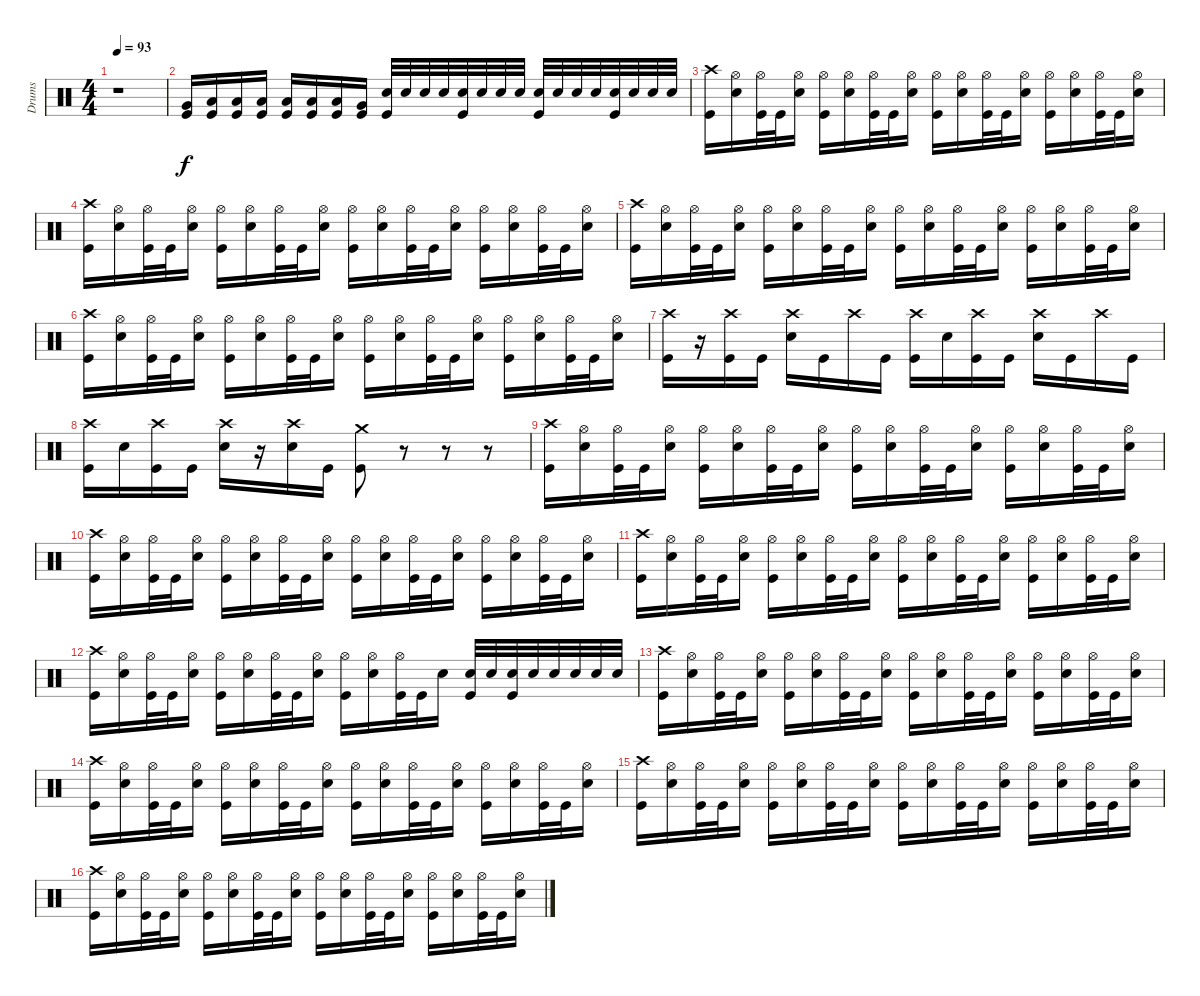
\track ("Drums" "Drums") {instrument percussion}
\staff {score}
\articulation defaults
\ts (4 4)
\tempo 93
\clef neutral
\ks c
r.1{dy f} |
("Very Low Tom (hit)" "Kick (hit)").16 ("Low Floor Tom (hit)" "Kick (hit)").16 ("Low Floor Tom (hit)" "Kick (hit)").16 ("Low Floor Tom (hit)" "Kick (hit)").16 ("Low Floor Tom (hit)" "Kick (hit)").16 ("Low Floor Tom (hit)" "Kick (hit)").16 ("Low Floor Tom (hit)" "Kick (hit)").16 ("Very Low Tom (hit)" "Kick (hit)").16 ("Electric Snare (hit)" "Kick (hit)").32 "Electric Snare (hit)".32 "Electric Snare (hit)".32 "Electric Snare (hit)".32 ("Electric Snare (hit)" "Kick (hit)").32 "Electric Snare (hit)".32 "Electric Snare (hit)".32 "Electric Snare (hit)".32 ("Electric Snare (hit)" "Kick (hit)").32 "Electric Snare (hit)".32 "Electric Snare (hit)".32 "Electric Snare (hit)".32 ("Electric Snare (hit)" "Kick (hit)").32 "Electric Snare (hit)".32 "Electric Snare (hit)".32 "Electric Snare (hit)".32 |
("Crash high (hit)" "Kick (hit)").16 ("Hi-Hat (open)" "Electric Snare (hit)").16 ("Hi-Hat (open)" "Kick (hit)").32 "Kick (hit)".32 ("Hi-Hat (open)" "Electric Snare (hit)").16 ("Hi-Hat (open)" "Kick (hit)").16 ("Hi-Hat (open)" "Electric Snare (hit)").16 ("Hi-Hat (open)" "Kick (hit)").32 "Kick (hit)".32 ("Hi-Hat (open)" "Electric Snare (hit)").16 ("Hi-Hat (open)" "Kick (hit)").16 ("Hi-Hat (open)" "Electric Snare (hit)").16 ("Hi-Hat (open)" "Kick (hit)").32 "Kick (hit)".32 ("Hi-Hat (open)" "Electric Snare (hit)").16 ("Hi-Hat (open)" "Kick (hit)").16 ("Hi-Hat (open)" "Electric Snare (hit)").16 ("Hi-Hat (open)" "Kick (hit)").32 "Kick (hit)".32 ("Hi-Hat (open)" "Electric Snare (hit)").16 |
("Crash high (hit)" "Kick (hit)").16 ("Hi-Hat (open)" "Electric Snare (hit)").16 ("Hi-Hat (open)" "Kick (hit)").32 "Kick (hit)".32 ("Hi-Hat (open)" "Electric Snare (hit)").16 ("Hi-Hat (open)" "Kick (hit)").16 ("Hi-Hat (open)" "Electric Snare (hit)").16 ("Hi-Hat (open)" "Kick (hit)").32 "Kick (hit)".32 ("Hi-Hat (open)" "Electric Snare (hit)").16 ("Hi-Hat (open)" "Kick (hit)").16 ("Hi-Hat (open)" "Electric Snare (hit)").16 ("Hi-Hat (open)" "Kick (hit)").32 "Kick (hit)".32 ("Hi-Hat (open)" "Electric Snare (hit)").16 ("Hi-Hat (open)" "Kick (hit)").16 ("Hi-Hat (open)" "Electric Snare (hit)").16 ("Hi-Hat (open)" "Kick (hit)").32 "Kick (hit)".32 ("Hi-Hat (open)" "Electric Snare (hit)").16 |
("Crash high (hit)" "Kick (hit)").16 ("Hi-Hat (open)" "Electric Snare (hit)").16 ("Hi-Hat (open)" "Kick (hit)").32 "Kick (hit)".32 ("Hi-Hat (open)" "Electric Snare (hit)").16 ("Hi-Hat (open)" "Kick (hit)").16 ("Hi-Hat (open)" "Electric Snare (hit)").16 ("Hi-Hat (open)" "Kick (hit)").32 "Kick (hit)".32 ("Hi-Hat (open)" "Electric Snare (hit)").16 ("Hi-Hat (open)" "Kick (hit)").16 ("Hi-Hat (open)" "Electric Snare (hit)").16 ("Hi-Hat (open)" "Kick (hit)").32 "Kick (hit)".32 ("Hi-Hat (open)" "Electric Snare (hit)").16 ("Hi-Hat (open)" "Kick (hit)").16 ("Hi-Hat (open)" "Electric Snare (hit)").16 ("Hi-Hat (open)" "Kick (hit)").32 "Kick (hit)".32 ("Hi-Hat (open)" "Electric Snare (hit)").16 |
("Crash high (hit)" "Kick (hit)").16 ("Hi-Hat (open)" "Electric Snare (hit)").16 ("Hi-Hat (open)" "Kick (hit)").32 "Kick (hit)".32 ("Hi-Hat (open)" "Electric Snare (hit)").16 ("Hi-Hat (open)" "Kick (hit)").16 ("Hi-Hat (open)" "Electric Snare (hit)").16 ("Hi-Hat (open)" "Kick (hit)").32 "Kick (hit)".32 ("Hi-Hat (open)" "Electric Snare (hit)").16 ("Hi-Hat (open)" "Kick (hit)").16 ("Hi-Hat (open)" "Electric Snare (hit)").16 ("Hi-Hat (open)" "Kick (hit)").32 "Kick (hit)".32 ("Hi-Hat (open)" "Electric Snare (hit)").16 ("Hi-Hat (open)" "Kick (hit)").16 ("Hi-Hat (open)" "Electric Snare (hit)").16 ("Hi-Hat (open)" "Kick (hit)").32 "Kick (hit)".32 ("Hi-Hat (open)" "Electric Snare (hit)").16 |
("Crash high (hit)" "Kick (hit)").16 r.16 ("Crash high (hit)" "Kick (hit)").16 "Kick (hit)".16 ("Crash high (hit)" "Electric Snare (hit)").16 "Kick (hit)".16 "Crash high (hit)".16 "Kick (hit)".16 ("Crash high (hit)" "Kick (hit)").16 "Electric Snare (hit)".16 ("Crash high (hit)" "Kick (hit)").16 "Kick (hit)".16 ("Crash high (hit)" "Electric Snare (hit)").16 "Kick (hit)".16 "Crash high (hit)".16 "Kick (hit)".16 |
("Crash high (hit)" "Kick (hit)").16 "Electric Snare (hit)".16 ("Crash high (hit)" "Kick (hit)").16 "Kick (hit)".16 ("Crash high (hit)" "Electric Snare (hit)").16 r.16 ("Crash high (hit)" "Electric Snare (hit)").16 "Kick (hit)".16 ("Crash medium (hit)" "Kick (hit)").8 r.8 r.8 r.8 |
("Crash high (hit)" "Kick (hit)").16 ("Hi-Hat (open)" "Electric Snare (hit)").16 ("Hi-Hat (open)" "Kick (hit)").32 "Kick (hit)".32 ("Hi-Hat (open)" "Electric Snare (hit)").16 ("Hi-Hat (open)" "Kick (hit)").16 ("Hi-Hat (open)" "Electric Snare (hit)").16 ("Hi-Hat (open)" "Kick (hit)").32 "Kick (hit)".32 ("Hi-Hat (open)" "Electric Snare (hit)").16 ("Hi-Hat (open)" "Kick (hit)").16 ("Hi-Hat (open)" "Electric Snare (hit)").16 ("Hi-Hat (open)" "Kick (hit)").32 "Kick (hit)".32 ("Hi-Hat (open)" "Electric Snare (hit)").16 ("Hi-Hat (open)" "Kick (hit)").16 ("Hi-Hat (open)" "Electric Snare (hit)").16 ("Hi-Hat (open)" "Kick (hit)").32 "Kick (hit)".32 ("Hi-Hat (open)" "Electric Snare (hit)").16 |
("Crash high (hit)" "Kick (hit)").16 ("Hi-Hat (open)" "Electric Snare (hit)").16 ("Hi-Hat (open)" "Kick (hit)").32 "Kick (hit)".32 ("Hi-Hat (open)" "Electric Snare (hit)").16 ("Hi-Hat (open)" "Kick (hit)").16 ("Hi-Hat (open)" "Electric Snare (hit)").16 ("Hi-Hat (open)" "Kick (hit)").32 "Kick (hit)".32 ("Hi-Hat (open)" "Electric Snare (hit)").16 ("Hi-Hat (open)" "Kick (hit)").16 ("Hi-Hat (open)" "Electric Snare (hit)").16 ("Hi-Hat (open)" "Kick (hit)").32 "Kick (hit)".32 ("Hi-Hat (open)" "Electric Snare (hit)").16 ("Hi-Hat (open)" "Kick (hit)").16 ("Hi-Hat (open)" "Electric Snare (hit)").16 ("Hi-Hat (open)" "Kick (hit)").32 "Kick (hit)".32 ("Hi-Hat (open)" "Electric Snare (hit)").16 |
("Crash high (hit)" "Kick (hit)").16 ("Hi-Hat (open)" "Electric Snare (hit)").16 ("Hi-Hat (open)" "Kick (hit)").32 "Kick (hit)".32 ("Hi-Hat (open)" "Electric Snare (hit)").16 ("Hi-Hat (open)" "Kick (hit)").16 ("Hi-Hat (open)" "Electric Snare (hit)").16 ("Hi-Hat (open)" "Kick (hit)").32 "Kick (hit)".32 ("Hi-Hat (open)" "Electric Snare (hit)").16 ("Hi-Hat (open)" "Kick (hit)").16 ("Hi-Hat (open)" "Electric Snare (hit)").16 ("Hi-Hat (open)" "Kick (hit)").32 "Kick (hit)".32 ("Hi-Hat (open)" "Electric Snare (hit)").16 ("Hi-Hat (open)" "Kick (hit)").16 ("Hi-Hat (open)" "Electric Snare (hit)").16 ("Hi-Hat (open)" "Kick (hit)").32 "Kick (hit)".32 ("Hi-Hat (open)" "Electric Snare (hit)").16 |
("Crash high (hit)" "Kick (hit)").16 ("Hi-Hat (open)" "Electric Snare (hit)").16 ("Hi-Hat (open)" "Kick (hit)").32 "Kick (hit)".32 ("Hi-Hat (open)" "Electric Snare (hit)").16 ("Hi-Hat (open)" "Kick (hit)").16 ("Hi-Hat (open)" "Electric Snare (hit)").16 ("Hi-Hat (open)" "Kick (hit)").32 "Kick (hit)".32 ("Hi-Hat (open)" "Electric Snare (hit)").16 ("Hi-Hat (open)" "Kick (hit)").16 ("Hi-Hat (open)" "Electric Snare (hit)").16 ("Hi-Hat (open)" "Kick (hit)").32 "Kick (hit)".32 "Electric Snare (hit)".16 ("Electric Snare (hit)" "Kick (hit)").32 "Electric Snare (hit)".32 ("Electric Snare (hit)" "Kick (hit)").32 "Electric Snare (hit)".32 "Electric Snare (hit)".32 "Electric Snare (hit)".32 "Electric Snare (hit)".32 "Electric Snare (hit)".32 |
("Crash high (hit)" "Kick (hit)").16 ("Hi-Hat (open)" "Electric Snare (hit)").16 ("Hi-Hat (open)" "Kick (hit)").32 "Kick (hit)".32 ("Hi-Hat (open)" "Electric Snare (hit)").16 ("Hi-Hat (open)" "Kick (hit)").16 ("Hi-Hat (open)" "Electric Snare (hit)").16 ("Hi-Hat (open)" "Kick (hit)").32 "Kick (hit)".32 ("Hi-Hat (open)" "Electric Snare (hit)").16 ("Hi-Hat (open)" "Kick (hit)").16 ("Hi-Hat (open)" "Electric Snare (hit)").16 ("Hi-Hat (open)" "Kick (hit)").32 "Kick (hit)".32 ("Hi-Hat (open)" "Electric Snare (hit)").16 ("Hi-Hat (open)" "Kick (hit)").16 ("Hi-Hat (open)" "Electric Snare (hit)").16 ("Hi-Hat (open)" "Kick (hit)").32 "Kick (hit)".32 ("Hi-Hat (open)" "Electric Snare (hit)").16 |
("Crash high (hit)" "Kick (hit)").16 ("Hi-Hat (open)" "Electric Snare (hit)").16 ("Hi-Hat (open)" "Kick (hit)").32 "Kick (hit)".32 ("Hi-Hat (open)" "Electric Snare (hit)").16 ("Hi-Hat (open)" "Kick (hit)").16 ("Hi-Hat (open)" "Electric Snare (hit)").16 ("Hi-Hat (open)" "Kick (hit)").32 "Kick (hit)".32 ("Hi-Hat (open)" "Electric Snare (hit)").16 ("Hi-Hat (open)" "Kick (hit)").16 ("Hi-Hat (open)" "Electric Snare (hit)").16 ("Hi-Hat (open)" "Kick (hit)").32 "Kick (hit)".32 ("Hi-Hat (open)" "Electric Snare (hit)").16 ("Hi-Hat (open)" "Kick (hit)").16 ("Hi-Hat (open)" "Electric Snare (hit)").16 ("Hi-Hat (open)" "Kick (hit)").32 "Kick (hit)".32 ("Hi-Hat (open)" "Electric Snare (hit)").16 |
("Crash high (hit)" "Kick (hit)").16 ("Hi-Hat (open)" "Electric Snare (hit)").16 ("Hi-Hat (open)" "Kick (hit)").32 "Kick (hit)".32 ("Hi-Hat (open)" "Electric Snare (hit)").16 ("Hi-Hat (open)" "Kick (hit)").16 ("Hi-Hat (open)" "Electric Snare (hit)").16 ("Hi-Hat (open)" "Kick (hit)").32 "Kick (hit)".32 ("Hi-Hat (open)" "Electric Snare (hit)").16 ("Hi-Hat (open)" "Kick (hit)").16 ("Hi-Hat (open)" "Electric Snare (hit)").16 ("Hi-Hat (open)" "Kick (hit)").32 "Kick (hit)".32 ("Hi-Hat (open)" "Electric Snare (hit)").16 ("Hi-Hat (open)" "Kick (hit)").16 ("Hi-Hat (open)" "Electric Snare (hit)").16 ("Hi-Hat (open)" "Kick (hit)").32 "Kick (hit)".32 ("Hi-Hat (open)" "Electric Snare (hit)").16 |
("Crash high (hit)" "Kick (hit)").16 ("Hi-Hat (open)" "Electric Snare (hit)").16 ("Hi-Hat (open)" "Kick (hit)").32 "Kick (hit)".32 ("Hi-Hat (open)" "Electric Snare (hit)").16 ("Hi-Hat (open)" "Kick (hit)").16 ("Hi-Hat (open)" "Electric Snare (hit)").16 ("Hi-Hat (open)" "Kick (hit)").32 "Kick (hit)".32 ("Hi-Hat (open)" "Electric Snare (hit)").16 ("Hi-Hat (open)" "Kick (hit)").16 ("Hi-Hat (open)" "Electric Snare (hit)").16 ("Hi-Hat (open)" "Kick (hit)").32 "Kick (hit)".32 ("Hi-Hat (open)" "Electric Snare (hit)").16 ("Hi-Hat (open)" "Kick (hit)").16 ("Hi-Hat (open)" "Electric Snare (hit)").16 ("Hi-Hat (open)" "Kick (hit)").32 "Kick (hit)".32 ("Hi-Hat (open)" "Electric Snare (hit)").16
